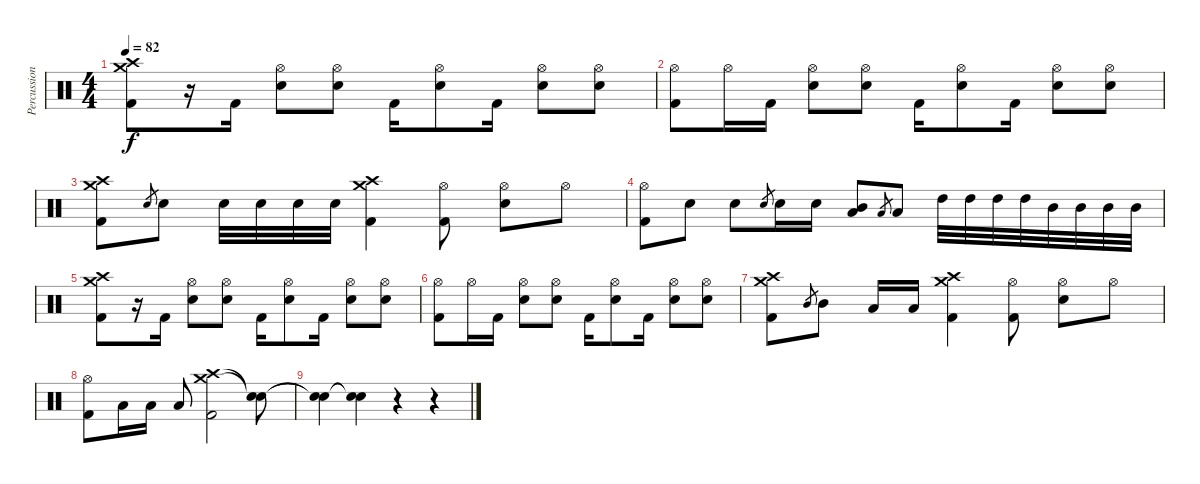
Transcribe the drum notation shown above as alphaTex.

\track ("Percussion" "Percussion") {instrument percussion}
\staff {score}
\articulation defaults
\ts (4 4)
\tempo 82
\clef neutral
\ks c
("Crash high (hit)" "Crash medium (hit)" "Kick (hit) 2").8{dy f} r.16 "Kick (hit) 2".16 ("Hi-Hat (open)" "Electric Snare (hit)").8 ("Hi-Hat (open)" "Electric Snare (hit)").8 "Kick (hit) 2".16 ("Hi-Hat (open)" "Electric Snare (hit)").8 "Kick (hit) 2".16 ("Hi-Hat (open)" "Electric Snare (hit)").8 ("Hi-Hat (open)" "Electric Snare (hit)").8 |
("Hi-Hat (open)" "Kick (hit) 2").8 "Hi-Hat (open)".16 "Kick (hit) 2".16 ("Hi-Hat (open)" "Electric Snare (hit)").8 ("Hi-Hat (open)" "Electric Snare (hit)").8 "Kick (hit) 2".16 ("Hi-Hat (open)" "Electric Snare (hit)").8 "Kick (hit) 2".16 ("Hi-Hat (open)" "Electric Snare (hit)").8 ("Hi-Hat (open)" "Electric Snare (hit)").8 |
("Crash high (hit)" "Crash medium (hit)" "Kick (hit) 2").8 "Electric Snare (hit)".8{gr} "Electric Snare (hit)".8 "Electric Snare (hit)".32 "Electric Snare (hit)".32 "Electric Snare (hit)".32 "Electric Snare (hit)".32 ("Crash high (hit)" "Crash medium (hit)" "Kick (hit) 2").4 ("Hi-Hat (open)" "Kick (hit) 2").8 ("Hi-Hat (open)" "Electric Snare (hit)").8 "Hi-Hat (open)".8 |
("Hi-Hat (open)" "Kick (hit) 2").8 "Electric Snare (hit)".8 "Electric Snare (hit)".8 "Electric Snare (hit)".8{gr} "Electric Snare (hit)".16 "Electric Snare (hit)".16 ("Mid Tom (hit)" "Low Tom (hit)").8 "Low Tom (hit)".8{gr} "Low Tom (hit)".8 "High Tom (hit)".32 "High Tom (hit)".32 "High Tom (hit)".32 "High Tom (hit)".32 "Mid Tom (hit)".32 "Mid Tom (hit)".32 "Mid Tom (hit)".32 "Mid Tom (hit)".32 |
("Crash high (hit)" "Crash medium (hit)" "Kick (hit) 2").8 r.16 "Kick (hit) 2".16 ("Hi-Hat (open)" "Electric Snare (hit)").8 ("Hi-Hat (open)" "Electric Snare (hit)").8 "Kick (hit) 2".16 ("Hi-Hat (open)" "Electric Snare (hit)").8 "Kick (hit) 2".16 ("Hi-Hat (open)" "Electric Snare (hit)").8 ("Hi-Hat (open)" "Electric Snare (hit)").8 |
("Hi-Hat (open)" "Kick (hit) 2").8 "Hi-Hat (open)".16 "Kick (hit) 2".16 ("Hi-Hat (open)" "Electric Snare (hit)").8 ("Hi-Hat (open)" "Electric Snare (hit)").8 "Kick (hit) 2".16 ("Hi-Hat (open)" "Electric Snare (hit)").8 "Kick (hit) 2".16 ("Hi-Hat (open)" "Electric Snare (hit)").8 ("Hi-Hat (open)" "Electric Snare (hit)").8 |
("Crash high (hit)" "Crash medium (hit)" "Kick (hit) 2").8 "Mid Tom (hit)".8{gr} "Mid Tom (hit)".8 "Low Tom (hit)".16 "Low Tom (hit)".16 ("Crash high (hit)" "Crash medium (hit)" "Kick (hit) 2").4 ("Hi-Hat (open)" "Kick (hit) 2").8 ("Hi-Hat (open)" "Electric Snare (hit)").8 "Hi-Hat (open)".8 |
("Hi-Hat (open)" "Kick (hit) 2").8 "Low Tom (hit)".16 "Low Tom (hit)".16 "Low Tom (hit)".8 ("Crash high (hit)" "Crash medium (hit)" "Kick (hit) 2").2 ("Snare (hit)"{t} "Snare (hit)"{t}).8 |
("Snare (hit)"{t} "Snare (hit)"{t}).4 ("Snare (hit)"{t} "Snare (hit)"{t}).4 r.4 r.4
